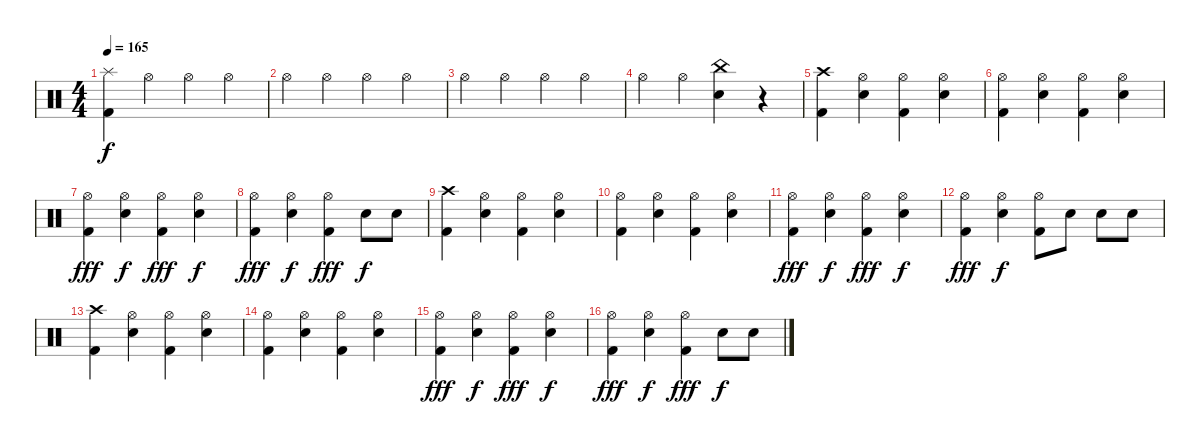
\track "" {instrument percussion}
\staff {score}
\articulation defaults
\ts (4 4)
\tempo 165
\clef neutral
\ks c
("Splash (hit)" "Kick (hit) 2").4{dy f} "Hi-Hat (open)".4 "Hi-Hat (open)".4 "Hi-Hat (open)".4 |
"Hi-Hat (open)".4 "Hi-Hat (open)".4 "Hi-Hat (open)".4 "Hi-Hat (open)".4 |
"Hi-Hat (open)".4 "Hi-Hat (open)".4 "Hi-Hat (open)".4 "Hi-Hat (open)".4 |
"Hi-Hat (open)".4 "Hi-Hat (open)".4 ("China (hit)" "Electric Snare (hit)").4 r.4 |
("Kick (hit) 2" "Crash high (hit)").4 ("Electric Snare (hit)" "Hi-Hat (open)").4 ("Kick (hit) 2" "Hi-Hat (open)").4 ("Electric Snare (hit)" "Hi-Hat (open)").4 |
("Hi-Hat (open)" "Kick (hit) 2").4 ("Hi-Hat (open)" "Electric Snare (hit)").4 ("Hi-Hat (open)" "Kick (hit) 2").4 ("Hi-Hat (open)" "Electric Snare (hit)").4 |
("Hi-Hat (open)" "Kick (hit) 2").4{dy fff} ("Hi-Hat (open)" "Electric Snare (hit)").4{dy f} ("Hi-Hat (open)" "Kick (hit) 2").4{dy fff} ("Hi-Hat (open)" "Electric Snare (hit)").4{dy f} |
("Hi-Hat (open)" "Kick (hit) 2").4{dy fff} ("Hi-Hat (open)" "Electric Snare (hit)").4{dy f} ("Hi-Hat (open)" "Kick (hit) 2").4{dy fff} "Electric Snare (hit)".8{dy f} "Electric Snare (hit)".8 |
("Kick (hit) 2" "Crash high (hit)").4 ("Electric Snare (hit)" "Hi-Hat (open)").4 ("Kick (hit) 2" "Hi-Hat (open)").4 ("Electric Snare (hit)" "Hi-Hat (open)").4 |
("Hi-Hat (open)" "Kick (hit) 2").4 ("Hi-Hat (open)" "Electric Snare (hit)").4 ("Hi-Hat (open)" "Kick (hit) 2").4 ("Hi-Hat (open)" "Electric Snare (hit)").4 |
("Hi-Hat (open)" "Kick (hit) 2").4{dy fff} ("Hi-Hat (open)" "Electric Snare (hit)").4{dy f} ("Hi-Hat (open)" "Kick (hit) 2").4{dy fff} ("Hi-Hat (open)" "Electric Snare (hit)").4{dy f} |
("Hi-Hat (open)" "Kick (hit) 2").4{dy fff} ("Hi-Hat (open)" "Electric Snare (hit)").4{dy f} ("Kick (hit) 2" "Hi-Hat (open)").8 "Electric Snare (hit)".8 "Electric Snare (hit)".8 "Electric Snare (hit)".8 |
("Kick (hit) 2" "Crash high (hit)").4 ("Electric Snare (hit)" "Hi-Hat (open)").4 ("Kick (hit) 2" "Hi-Hat (open)").4 ("Electric Snare (hit)" "Hi-Hat (open)").4 |
("Hi-Hat (open)" "Kick (hit) 2").4 ("Hi-Hat (open)" "Electric Snare (hit)").4 ("Hi-Hat (open)" "Kick (hit) 2").4 ("Hi-Hat (open)" "Electric Snare (hit)").4 |
("Hi-Hat (open)" "Kick (hit) 2").4{dy fff} ("Hi-Hat (open)" "Electric Snare (hit)").4{dy f} ("Hi-Hat (open)" "Kick (hit) 2").4{dy fff} ("Hi-Hat (open)" "Electric Snare (hit)").4{dy f} |
("Hi-Hat (open)" "Kick (hit) 2").4{dy fff} ("Hi-Hat (open)" "Electric Snare (hit)").4{dy f} ("Hi-Hat (open)" "Kick (hit) 2").4{dy fff} "Electric Snare (hit)".8{dy f} "Electric Snare (hit)".8
